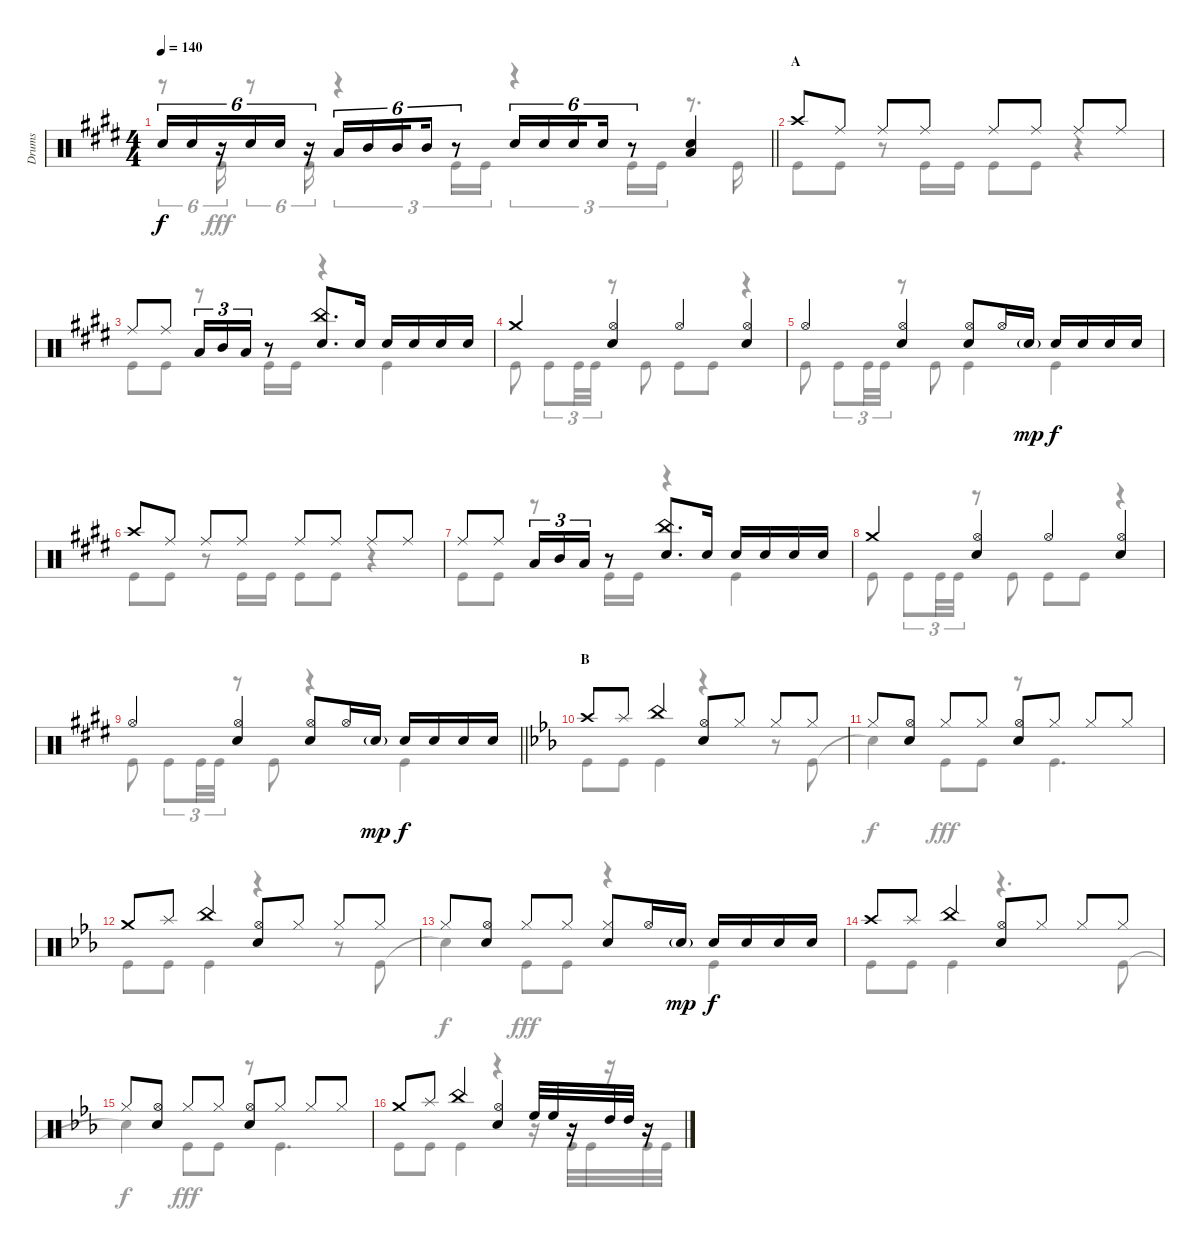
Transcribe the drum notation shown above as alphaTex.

\track ("Drums" "Drums") {instrument percussion}
\staff {score}
\articulation defaults
\voice
\ts (4 4)
\tempo 140
\clef neutral
\barLineRight lightlight
\ks e "Snare (hit) 2".16{tu (6 4) dy f} "Snare (hit) 2".16{tu (6 4)}
r.16{tu (6 4)} "Snare (hit) 2".16{tu (6 4)} "Snare (hit) 2".16{tu (6 4)} r.16{tu (6 4)} "Low Tom (hit)".16{tu (6 4)} "Mid Tom (hit)".16{tu (6 4)} "Mid Tom (hit)".16{tu (6 4) beam splitsecondary} "Mid Tom (hit)".16{tu (6 4)} r.8{tu (6 4)} "Snare (hit) 2".16{tu (6 4)} "Snare (hit) 2".16{tu (6 4)} "Snare (hit) 2".16{tu (6 4) beam splitsecondary} "Snare (hit) 2".16{tu (6 4)} r.8{tu (6 4)} ("Snare (hit) 2" "Low Tom (hit)").4 |
\section ("" "A")
"Crash high (hit)".8 "Ride (middle)".8 "Ride (middle)".8 "Ride (middle)".8 "Ride (middle)".8 "Ride (middle)".8 "Ride (middle)".8 "Ride (middle)".8 |
"Ride (middle)".8 "Ride (middle)".8 "Low Tom (hit)".16{tu (3 2)} "Mid Tom (hit)".16{tu (3 2)} "Low Tom (hit)".16{tu (3 2)} r.8 ("China (hit)" "Snare (hit) 2").8{d} "Snare (hit) 2".16 "Snare (hit) 2".16 "Snare (hit) 2".16 "Snare (hit) 2".16 "Snare (hit) 2".16 |
"Crash medium (hit)".4 ("Hi-Hat (open)" "Snare (hit) 2").4 "Hi-Hat (open)".4 ("Hi-Hat (open)" "Snare (hit) 2").4 |
"Hi-Hat (open)".4 ("Hi-Hat (open)" "Snare (hit) 2").4 ("Hi-Hat (open)" "Snare (hit) 2").8 "Hi-Hat (open)".16 "Snare (hit) 2"{g}.16{dy mp} "Snare (hit) 2".16{dy f} "Snare (hit) 2".16 "Snare (hit) 2".16 "Snare (hit) 2".16 |
"Crash high (hit)".8 "Ride (middle)".8 "Ride (middle)".8 "Ride (middle)".8 "Ride (middle)".8 "Ride (middle)".8 "Ride (middle)".8 "Ride (middle)".8 |
"Ride (middle)".8 "Ride (middle)".8 "Low Tom (hit)".16{tu (3 2)} "Mid Tom (hit)".16{tu (3 2)} "Low Tom (hit)".16{tu (3 2)} r.8 ("China (hit)" "Snare (hit) 2").8{d} "Snare (hit) 2".16 "Snare (hit) 2".16 "Snare (hit) 2".16 "Snare (hit) 2".16 "Snare (hit) 2".16 |
"Crash medium (hit)".4 ("Hi-Hat (open)" "Snare (hit) 2").4 "Hi-Hat (open)".4 ("Hi-Hat (open)" "Snare (hit) 2").4 |
\barLineRight lightlight "Hi-Hat (open)".4
("Hi-Hat (open)" "Snare (hit) 2").4 ("Hi-Hat (open)" "Snare (hit) 2").8 "Hi-Hat (open)".16 "Snare (hit) 2"{g}.16{dy mp} "Snare (hit) 2".16{dy f} "Snare (hit) 2".16 "Snare (hit) 2".16 "Snare (hit) 2".16 |
\section ("" "B")
\ks eb "Crash high (hit)".8 "Splash (hit)".8 "China (hit)".4
("Hi-Hat (open)" "Snare (hit) 2").8 "Hi-Hat (closed)".8 "Hi-Hat (closed)".8 "Hi-Hat (closed)".8 |
"Hi-Hat (closed)".8 ("Hi-Hat (open)" "Snare (hit) 2").8 "Hi-Hat (closed)".8 "Hi-Hat (closed)".8 ("Hi-Hat (open)" "Snare (hit) 2").8 "Hi-Hat (closed)".8 "Hi-Hat (closed)".8 "Hi-Hat (closed)".8 |
"Crash medium (hit)".8 "Splash (hit)".8 "China (hit)".4 ("Hi-Hat (open)" "Snare (hit) 2").8 "Hi-Hat (closed)".8 "Hi-Hat (closed)".8 "Hi-Hat (closed)".8 |
"Hi-Hat (closed)".8 ("Hi-Hat (open)" "Snare (hit) 2").8 "Hi-Hat (closed)".8 "Hi-Hat (closed)".8 ("Hi-Hat (closed)" "Snare (hit) 2").8 "Hi-Hat (open)".16 "Snare (hit) 2"{g}.16{dy mp} "Snare (hit) 2".16{dy f} "Snare (hit) 2".16 "Snare (hit) 2".16 "Snare (hit) 2".16 |
"Crash high (hit)".8 "Splash (hit)".8 "China (hit)".4 ("Hi-Hat (open)" "Snare (hit) 2").8 "Hi-Hat (closed)".8 "Hi-Hat (closed)".8 "Hi-Hat (closed)".8 |
"Hi-Hat (closed)".8 ("Hi-Hat (open)" "Snare (hit) 2").8 "Hi-Hat (closed)".8 "Hi-Hat (closed)".8 ("Hi-Hat (open)" "Snare (hit) 2").8 "Hi-Hat (closed)".8 "Hi-Hat (closed)".8 "Hi-Hat (closed)".8 |
"Crash medium (hit)".8 "Splash (hit)".8 "China (hit)".4 ("Hi-Hat (open)" "Snare (hit) 2").4 "High Floor Tom (hit)".32 "High Floor Tom (hit)".32 r.16 "High Tom (hit)".32 "High Tom (hit)".32 r.16
\voice
\clef neutral
\ottava regular
\simile none
\barLineRight lightlight
\ks e
r.8{tu (6 4) dy fff} "Kick (hit)".16{tu (6 4)} r.8{tu (6 4)} "Kick (hit)".16{tu (6 4)} r.4{tu (3 2)} "Kick (hit)".16{tu (3 2)} "Kick (hit)".16{tu (3 2)} r.4{tu (3 2)} "Kick (hit)".16{tu (3 2)} "Kick (hit)".16{tu (3 2)} r.8{d} "Kick (hit)".16 |
"Kick (hit)".8 "Kick (hit)".8 r.8 "Kick (hit)".16 "Kick (hit)".16 "Kick (hit)".8 "Kick (hit)".8 r.4 |
"Kick (hit)".8 "Kick (hit)".8 r.8 "Kick (hit)".16 "Kick (hit)".16 r.4 "Kick (hit)".4 |
"Kick (hit)".8 "Kick (hit)".8{tu (3 2)} "Kick (hit)".32{tu (3 2)} "Kick (hit)".32{tu (3 2)} r.8 "Kick (hit)".8 "Kick (hit)".8 "Kick (hit)".8 r.4 |
"Kick (hit)".8 "Kick (hit)".8{tu (3 2)} "Kick (hit)".32{tu (3 2)} "Kick (hit)".32{tu (3 2)} r.8 "Kick (hit)".8 "Kick (hit)".4 "Kick (hit)".4 |
"Kick (hit)".8 "Kick (hit)".8 r.8 "Kick (hit)".16 "Kick (hit)".16 "Kick (hit)".8 "Kick (hit)".8 r.4 |
"Kick (hit)".8 "Kick (hit)".8 r.8 "Kick (hit)".16 "Kick (hit)".16 r.4 "Kick (hit)".4 |
"Kick (hit)".8 "Kick (hit)".8{tu (3 2)} "Kick (hit)".32{tu (3 2)} "Kick (hit)".32{tu (3 2)} r.8 "Kick (hit)".8 "Kick (hit)".8 "Kick (hit)".8 r.4 |
\barLineRight lightlight "Kick (hit)".8 "Kick (hit)".8{tu (3 2)} "Kick (hit)".32{tu (3 2)} "Kick (hit)".32{tu (3 2)}
r.8 "Kick (hit)".8 r.4 "Kick (hit)".4 |
\ks eb "Kick (hit)".8 "Kick (hit)".8 "Kick (hit)".4
r.4 r.8 "Kick (hit)".8 |
"Snare (hit)"{t}.4{dy f} "Kick (hit)".8{dy fff} "Kick (hit)".8 r.8 "Kick (hit)".4{d} |
"Kick (hit)".8 "Kick (hit)".8 "Kick (hit)".4 r.4 r.8 "Kick (hit)".8 |
"Snare (hit)"{t}.4{dy f} "Kick (hit)".8{dy fff} "Kick (hit)".8 r.4 "Kick (hit)".4 |
"Kick (hit)".8 "Kick (hit)".8 "Kick (hit)".4 r.4{d} "Kick (hit)".8 |
"Snare (hit)"{t}.4{dy f} "Kick (hit)".8{dy fff} "Kick (hit)".8 r.8 "Kick (hit)".4{d} |
"Kick (hit)".8 "Kick (hit)".8 "Kick (hit)".4 r.4 r.16 "Kick (hit)".32 "Kick (hit)".32 r.16 "Kick (hit)".32 "Kick (hit)".32
